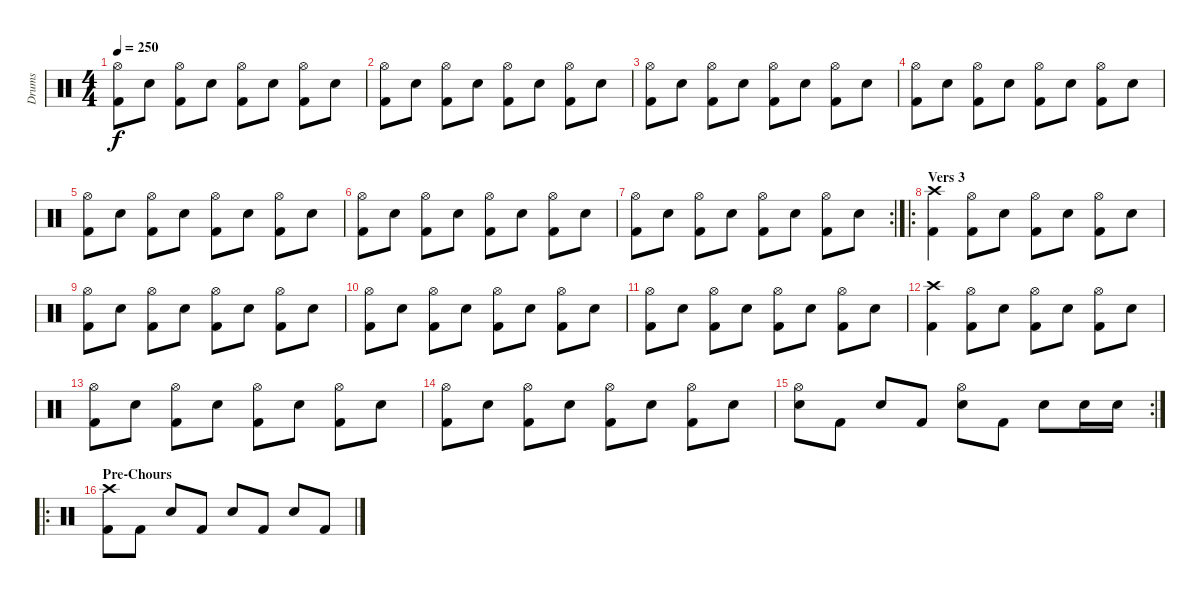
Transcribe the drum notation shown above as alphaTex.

\track ("Drums" "Drums") {instrument percussion}
\staff {score}
\articulation defaults
\ts (4 4)
\tempo 250
\clef neutral
\ks c
("Hi-Hat (open)" "Kick (hit) 2").8{dy f} "Snare (hit) 2".8 ("Hi-Hat (open)" "Kick (hit) 2").8 "Snare (hit) 2".8 ("Hi-Hat (open)" "Kick (hit) 2").8 "Snare (hit) 2".8 ("Hi-Hat (open)" "Kick (hit) 2").8 "Snare (hit) 2".8 |
("Hi-Hat (open)" "Kick (hit) 2").8 "Snare (hit) 2".8 ("Hi-Hat (open)" "Kick (hit) 2").8 "Snare (hit) 2".8 ("Hi-Hat (open)" "Kick (hit) 2").8 "Snare (hit) 2".8 ("Hi-Hat (open)" "Kick (hit) 2").8 "Snare (hit) 2".8 |
("Hi-Hat (open)" "Kick (hit) 2").8 "Snare (hit) 2".8 ("Hi-Hat (open)" "Kick (hit) 2").8 "Snare (hit) 2".8 ("Hi-Hat (open)" "Kick (hit) 2").8 "Snare (hit) 2".8 ("Hi-Hat (open)" "Kick (hit) 2").8 "Snare (hit) 2".8 |
("Hi-Hat (open)" "Kick (hit) 2").8 "Snare (hit) 2".8 ("Hi-Hat (open)" "Kick (hit) 2").8 "Snare (hit) 2".8 ("Hi-Hat (open)" "Kick (hit) 2").8 "Snare (hit) 2".8 ("Hi-Hat (open)" "Kick (hit) 2").8 "Snare (hit) 2".8 |
("Hi-Hat (open)" "Kick (hit) 2").8 "Snare (hit) 2".8 ("Hi-Hat (open)" "Kick (hit) 2").8 "Snare (hit) 2".8 ("Hi-Hat (open)" "Kick (hit) 2").8 "Snare (hit) 2".8 ("Hi-Hat (open)" "Kick (hit) 2").8 "Snare (hit) 2".8 |
("Hi-Hat (open)" "Kick (hit) 2").8 "Snare (hit) 2".8 ("Hi-Hat (open)" "Kick (hit) 2").8 "Snare (hit) 2".8 ("Hi-Hat (open)" "Kick (hit) 2").8 "Snare (hit) 2".8 ("Hi-Hat (open)" "Kick (hit) 2").8 "Snare (hit) 2".8 |
\rc 2
("Hi-Hat (open)" "Kick (hit) 2").8 "Snare (hit) 2".8 ("Hi-Hat (open)" "Kick (hit) 2").8 "Snare (hit) 2".8 ("Hi-Hat (open)" "Kick (hit) 2").8 "Snare (hit) 2".8 ("Hi-Hat (open)" "Kick (hit) 2").8 "Snare (hit) 2".8 |
\ro
\section ("" "Vers 3")
("Crash high (hit)" "Kick (hit) 2").4 ("Hi-Hat (open)" "Kick (hit) 2").8 "Snare (hit) 2".8 ("Hi-Hat (open)" "Kick (hit) 2").8 "Snare (hit) 2".8 ("Hi-Hat (open)" "Kick (hit) 2").8 "Snare (hit) 2".8 |
("Hi-Hat (open)" "Kick (hit) 2").8 "Snare (hit) 2".8 ("Hi-Hat (open)" "Kick (hit) 2").8 "Snare (hit) 2".8 ("Hi-Hat (open)" "Kick (hit) 2").8 "Snare (hit) 2".8 ("Hi-Hat (open)" "Kick (hit) 2").8 "Snare (hit) 2".8 |
("Hi-Hat (open)" "Kick (hit) 2").8 "Snare (hit) 2".8 ("Hi-Hat (open)" "Kick (hit) 2").8 "Snare (hit) 2".8 ("Hi-Hat (open)" "Kick (hit) 2").8 "Snare (hit) 2".8 ("Hi-Hat (open)" "Kick (hit) 2").8 "Snare (hit) 2".8 |
("Hi-Hat (open)" "Kick (hit) 2").8 "Snare (hit) 2".8 ("Hi-Hat (open)" "Kick (hit) 2").8 "Snare (hit) 2".8 ("Hi-Hat (open)" "Kick (hit) 2").8 "Snare (hit) 2".8 ("Hi-Hat (open)" "Kick (hit) 2").8 "Snare (hit) 2".8 |
("Crash high (hit)" "Kick (hit) 2").4 ("Hi-Hat (open)" "Kick (hit) 2").8 "Snare (hit) 2".8 ("Hi-Hat (open)" "Kick (hit) 2").8 "Snare (hit) 2".8 ("Hi-Hat (open)" "Kick (hit) 2").8 "Snare (hit) 2".8 |
("Hi-Hat (open)" "Kick (hit) 2").8 "Snare (hit) 2".8 ("Hi-Hat (open)" "Kick (hit) 2").8 "Snare (hit) 2".8 ("Hi-Hat (open)" "Kick (hit) 2").8 "Snare (hit) 2".8 ("Hi-Hat (open)" "Kick (hit) 2").8 "Snare (hit) 2".8 |
("Hi-Hat (open)" "Kick (hit) 2").8 "Snare (hit) 2".8 ("Hi-Hat (open)" "Kick (hit) 2").8 "Snare (hit) 2".8 ("Hi-Hat (open)" "Kick (hit) 2").8 "Snare (hit) 2".8 ("Hi-Hat (open)" "Kick (hit) 2").8 "Snare (hit) 2".8 |
\rc 2
("Hi-Hat (open)" "Snare (hit) 2").8 "Kick (hit) 2".8 "Snare (hit) 2".8 "Kick (hit) 2".8 ("Hi-Hat (open)" "Snare (hit) 2").8 "Kick (hit) 2".8 "Snare (hit) 2".8 "Snare (hit) 2".16 "Snare (hit) 2".16 |
\ro
\section ("" "Pre-Chours")
("Kick (hit) 2" "Crash high (hit)").8 "Kick (hit) 2".8 "Snare (hit) 2".8 "Kick (hit) 2".8 "Snare (hit) 2".8 "Kick (hit) 2".8 "Snare (hit) 2".8 "Kick (hit) 2".8
